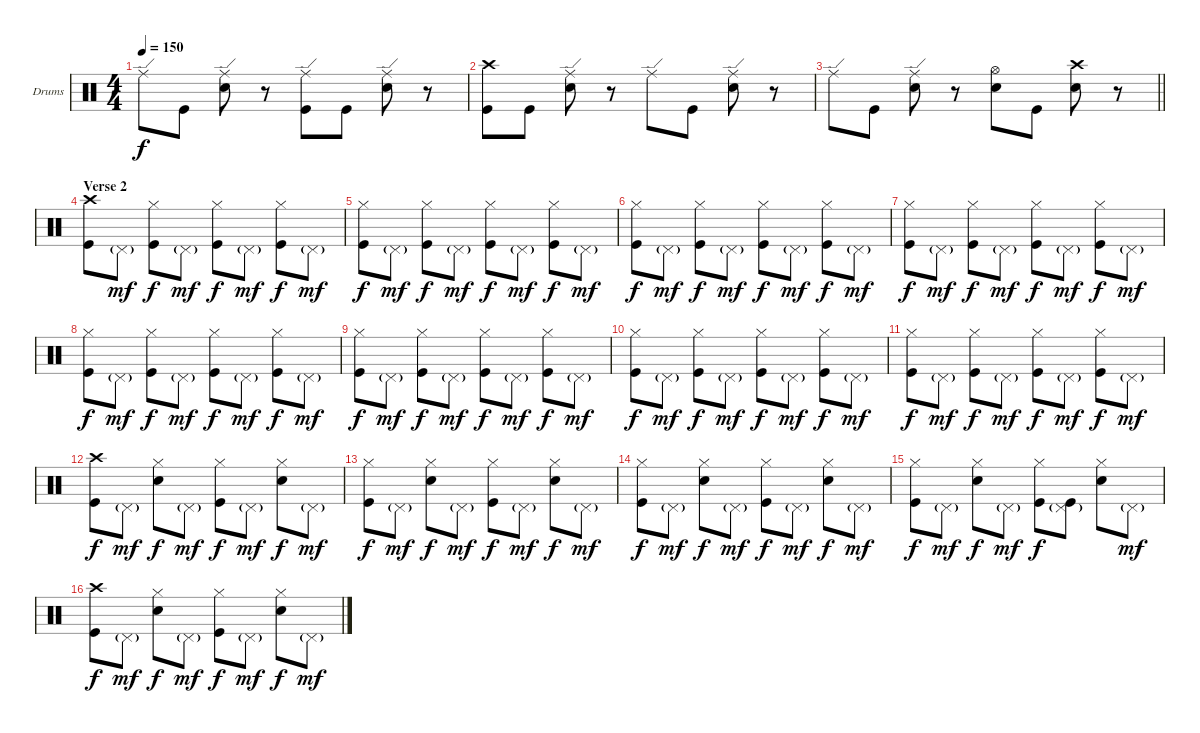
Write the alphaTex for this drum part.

\bracketExtendMode nobrackets
\firstSystemTrackNameOrientation horizontal
\otherSystemsTrackNameOrientation horizontal
\track ("Drumkit" "Drums") {instrument percussion}
\staff {score}
\articulation defaults
\ts (4 4)
\tempo 150
\clef neutral
\ks c "Ride (edge)".8{dy f} "Kick (hit)".8
("Ride (edge)" "Snare (hit) 2").8 r.8 ("Ride (edge)" "Kick (hit)").8 "Kick (hit)".8 ("Ride (edge)" "Snare (hit) 2").8 r.8 |
("Crash high (hit)" "Kick (hit)").8 "Kick (hit)".8 ("Ride (edge)" "Snare (hit) 2").8 r.8 "Ride (edge)".8 "Kick (hit)".8 ("Ride (edge)" "Snare (hit) 2").8 r.8 |
\barLineRight lightlight "Ride (edge)".8 "Kick (hit)".8
("Ride (edge)" "Snare (hit) 2").8 r.8 ("Hi-Hat (open)" "Snare (hit) 2").8 "Kick (hit)".8 ("Crash high (hit)" "Snare (hit) 2").8 r.8 |
\section ("" "Verse 2")
("Crash high (hit)" "Kick (hit)").8 "Pedal Hi-Hat (hit)"{g}.8{dy mf} ("Hi-Hat (closed)" "Kick (hit)").8{dy f} "Pedal Hi-Hat (hit)"{g}.8{dy mf} ("Hi-Hat (closed)" "Kick (hit)").8{dy f} "Pedal Hi-Hat (hit)"{g}.8{dy mf} ("Hi-Hat (closed)" "Kick (hit)").8{dy f} "Pedal Hi-Hat (hit)"{g}.8{dy mf} |
("Hi-Hat (closed)" "Kick (hit)").8{dy f} "Pedal Hi-Hat (hit)"{g}.8{dy mf} ("Hi-Hat (closed)" "Kick (hit)").8{dy f} "Pedal Hi-Hat (hit)"{g}.8{dy mf} ("Hi-Hat (closed)" "Kick (hit)").8{dy f} "Pedal Hi-Hat (hit)"{g}.8{dy mf} ("Hi-Hat (closed)" "Kick (hit)").8{dy f} "Pedal Hi-Hat (hit)"{g}.8{dy mf} |
("Hi-Hat (closed)" "Kick (hit)").8{dy f} "Pedal Hi-Hat (hit)"{g}.8{dy mf} ("Hi-Hat (closed)" "Kick (hit)").8{dy f} "Pedal Hi-Hat (hit)"{g}.8{dy mf} ("Hi-Hat (closed)" "Kick (hit)").8{dy f} "Pedal Hi-Hat (hit)"{g}.8{dy mf} ("Hi-Hat (closed)" "Kick (hit)").8{dy f} "Pedal Hi-Hat (hit)"{g}.8{dy mf} |
("Hi-Hat (closed)" "Kick (hit)").8{dy f} "Pedal Hi-Hat (hit)"{g}.8{dy mf} ("Hi-Hat (closed)" "Kick (hit)").8{dy f} "Pedal Hi-Hat (hit)"{g}.8{dy mf} ("Hi-Hat (closed)" "Kick (hit)").8{dy f} "Pedal Hi-Hat (hit)"{g}.8{dy mf} ("Hi-Hat (closed)" "Kick (hit)").8{dy f} "Pedal Hi-Hat (hit)"{g}.8{dy mf} |
("Hi-Hat (closed)" "Kick (hit)").8{dy f} "Pedal Hi-Hat (hit)"{g}.8{dy mf} ("Hi-Hat (closed)" "Kick (hit)").8{dy f} "Pedal Hi-Hat (hit)"{g}.8{dy mf} ("Hi-Hat (closed)" "Kick (hit)").8{dy f} "Pedal Hi-Hat (hit)"{g}.8{dy mf} ("Hi-Hat (closed)" "Kick (hit)").8{dy f} "Pedal Hi-Hat (hit)"{g}.8{dy mf} |
("Hi-Hat (closed)" "Kick (hit)").8{dy f} "Pedal Hi-Hat (hit)"{g}.8{dy mf} ("Hi-Hat (closed)" "Kick (hit)").8{dy f} "Pedal Hi-Hat (hit)"{g}.8{dy mf} ("Hi-Hat (closed)" "Kick (hit)").8{dy f} "Pedal Hi-Hat (hit)"{g}.8{dy mf} ("Hi-Hat (closed)" "Kick (hit)").8{dy f} "Pedal Hi-Hat (hit)"{g}.8{dy mf} |
("Hi-Hat (closed)" "Kick (hit)").8{dy f} "Pedal Hi-Hat (hit)"{g}.8{dy mf} ("Hi-Hat (closed)" "Kick (hit)").8{dy f} "Pedal Hi-Hat (hit)"{g}.8{dy mf} ("Hi-Hat (closed)" "Kick (hit)").8{dy f} "Pedal Hi-Hat (hit)"{g}.8{dy mf} ("Hi-Hat (closed)" "Kick (hit)").8{dy f} "Pedal Hi-Hat (hit)"{g}.8{dy mf} |
("Hi-Hat (closed)" "Kick (hit)").8{dy f} "Pedal Hi-Hat (hit)"{g}.8{dy mf} ("Hi-Hat (closed)" "Kick (hit)").8{dy f} "Pedal Hi-Hat (hit)"{g}.8{dy mf} ("Hi-Hat (closed)" "Kick (hit)").8{dy f} "Pedal Hi-Hat (hit)"{g}.8{dy mf} ("Hi-Hat (closed)" "Kick (hit)").8{dy f} "Pedal Hi-Hat (hit)"{g}.8{dy mf} |
("Crash high (hit)" "Kick (hit)").8{dy f} "Pedal Hi-Hat (hit)"{g}.8{dy mf} ("Hi-Hat (closed)" "Snare (hit) 2").8{dy f} "Pedal Hi-Hat (hit)"{g}.8{dy mf} ("Hi-Hat (closed)" "Kick (hit)").8{dy f} "Pedal Hi-Hat (hit)"{g}.8{dy mf} ("Hi-Hat (closed)" "Snare (hit) 2").8{dy f} "Pedal Hi-Hat (hit)"{g}.8{dy mf} |
("Hi-Hat (closed)" "Kick (hit)").8{dy f} "Pedal Hi-Hat (hit)"{g}.8{dy mf} ("Hi-Hat (closed)" "Snare (hit) 2").8{dy f} "Pedal Hi-Hat (hit)"{g}.8{dy mf} ("Hi-Hat (closed)" "Kick (hit)").8{dy f} "Pedal Hi-Hat (hit)"{g}.8{dy mf} ("Hi-Hat (closed)" "Snare (hit) 2").8{dy f} "Pedal Hi-Hat (hit)"{g}.8{dy mf} |
("Hi-Hat (closed)" "Kick (hit)").8{dy f} "Pedal Hi-Hat (hit)"{g}.8{dy mf} ("Hi-Hat (closed)" "Snare (hit) 2").8{dy f} "Pedal Hi-Hat (hit)"{g}.8{dy mf} ("Hi-Hat (closed)" "Kick (hit)").8{dy f} "Pedal Hi-Hat (hit)"{g}.8{dy mf} ("Hi-Hat (closed)" "Snare (hit) 2").8{dy f} "Pedal Hi-Hat (hit)"{g}.8{dy mf} |
("Hi-Hat (closed)" "Kick (hit)").8{dy f} "Pedal Hi-Hat (hit)"{g}.8{dy mf} ("Hi-Hat (closed)" "Snare (hit) 2").8{dy f} "Pedal Hi-Hat (hit)"{g}.8{dy mf} ("Hi-Hat (closed)" "Kick (hit)").8{dy f} ("Pedal Hi-Hat (hit)"{g} "Kick (hit)").8 ("Hi-Hat (closed)" "Snare (hit) 2").8 "Pedal Hi-Hat (hit)"{g}.8{dy mf} |
("Crash high (hit)" "Kick (hit)").8{dy f} "Pedal Hi-Hat (hit)"{g}.8{dy mf} ("Hi-Hat (closed)" "Snare (hit) 2").8{dy f} "Pedal Hi-Hat (hit)"{g}.8{dy mf} ("Hi-Hat (closed)" "Kick (hit)").8{dy f} "Pedal Hi-Hat (hit)"{g}.8{dy mf} ("Hi-Hat (closed)" "Snare (hit) 2").8{dy f} "Pedal Hi-Hat (hit)"{g}.8{dy mf}
